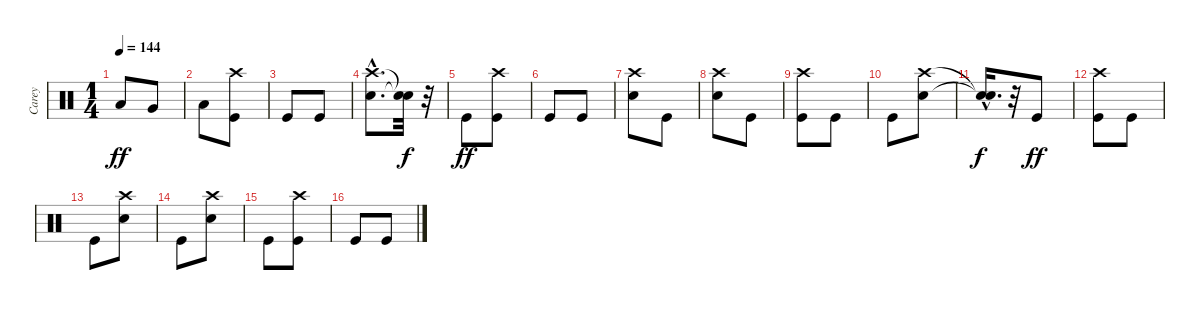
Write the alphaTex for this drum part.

\track ("Carey" "Carey") {instrument percussion}
\staff {score}
\articulation defaults
\ts (1 4)
\tempo 144
\clef neutral
\ks c "Low Tom (hit)".8{dy ff} "Very Low Tom (hit)".8
|
"Low Floor Tom (hit)".8 ("Kick (hit)" "Crash high (hit)").8 |
"Kick (hit)".8 "Kick (hit)".8 |
("Snare (hit) 2"{hac} "Crash high (hit)"{hac}).8{d} ("Snare (hit)"{t} "Snare (hit)"{t}).32{dy f} r.32 |
"Kick (hit)".8{dy ff} ("Kick (hit)" "Crash high (hit)").8 |
"Kick (hit)".8 "Kick (hit)".8 |
("Snare (hit) 2" "Crash high (hit)").8 "Kick (hit)".8 |
("Snare (hit) 2" "Crash high (hit)").8 "Kick (hit)".8 |
("Kick (hit)" "Crash high (hit)").8 "Kick (hit)".8 |
"Kick (hit)".8 ("Snare (hit) 2" "Crash high (hit)").8 |
("Snare (hit)"{hac t} "Snare (hit)"{hac t}).16{d dy f} r.32 "Kick (hit)".8{dy ff} |
("Kick (hit)" "Crash high (hit)").8 "Kick (hit)".8 |
"Kick (hit)".8 ("Snare (hit) 2" "Crash high (hit)").8 |
"Kick (hit)".8 ("Snare (hit) 2" "Crash high (hit)").8 |
"Kick (hit)".8 ("Kick (hit)" "Crash high (hit)").8 |
"Kick (hit)".8 "Kick (hit)".8
